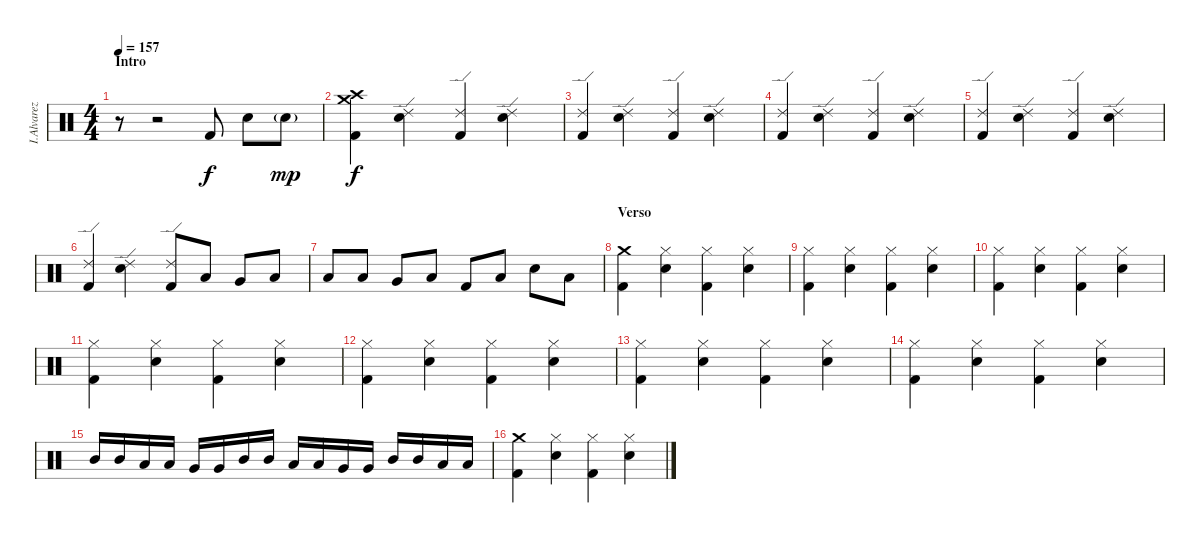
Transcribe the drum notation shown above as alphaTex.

\track ("I.Alvarez" "I.Alvarez") {instrument percussion}
\staff {score}
\articulation defaults
\ts (4 4)
\section ("" "Intro")
\tempo 157
\clef neutral
\ks c
r.8{dy f} r.2 "Kick (hit) 2".8 "Electric Snare (hit)".8 "Electric Snare (hit)"{g}.8{dy mp} |
("Crash medium (hit)" "Crash high (hit)" "Kick (hit) 2").4{dy f} ("Ride (edge) 2" "Electric Snare (hit)").4 ("Ride (edge) 2" "Kick (hit) 2").4 ("Ride (edge) 2" "Electric Snare (hit)").4 |
("Ride (edge) 2" "Kick (hit) 2").4 ("Ride (edge) 2" "Electric Snare (hit)").4 ("Ride (edge) 2" "Kick (hit) 2").4 ("Ride (edge) 2" "Electric Snare (hit)").4 |
("Ride (edge) 2" "Kick (hit) 2").4 ("Ride (edge) 2" "Electric Snare (hit)").4 ("Ride (edge) 2" "Kick (hit) 2").4 ("Ride (edge) 2" "Electric Snare (hit)").4 |
("Ride (edge) 2" "Kick (hit) 2").4 ("Ride (edge) 2" "Electric Snare (hit)").4 ("Ride (edge) 2" "Kick (hit) 2").4 ("Ride (edge) 2" "Electric Snare (hit)").4 |
("Ride (edge) 2" "Kick (hit) 2").4 ("Ride (edge) 2" "Electric Snare (hit)").4 ("Ride (edge) 2" "Kick (hit) 2").8 "Low Tom (hit)".8 "Very Low Tom (hit)".8 "Low Floor Tom (hit)".8 |
"Low Tom (hit)".8 "Low Tom (hit)".8 "Very Low Tom (hit)".8 "Low Floor Tom (hit)".8 "Kick (hit) 2".8 "Low Floor Tom (hit)".8 "Electric Snare (hit)".8 "Low Floor Tom (hit)".8 |
\section ("" "Verso")
("Crash medium (hit)" "Kick (hit) 2").4 ("Hi-Hat (closed)" "Electric Snare (hit)").4 ("Hi-Hat (closed)" "Kick (hit) 2").4 ("Hi-Hat (closed)" "Electric Snare (hit)").4 |
("Hi-Hat (closed)" "Kick (hit) 2").4 ("Hi-Hat (closed)" "Electric Snare (hit)").4 ("Hi-Hat (closed)" "Kick (hit) 2").4 ("Hi-Hat (closed)" "Electric Snare (hit)").4 |
("Hi-Hat (closed)" "Kick (hit) 2").4 ("Hi-Hat (closed)" "Electric Snare (hit)").4 ("Hi-Hat (closed)" "Kick (hit) 2").4 ("Hi-Hat (closed)" "Electric Snare (hit)").4 |
("Hi-Hat (closed)" "Kick (hit) 2").4 ("Hi-Hat (closed)" "Electric Snare (hit)").4 ("Hi-Hat (closed)" "Kick (hit) 2").4 ("Hi-Hat (closed)" "Electric Snare (hit)").4 |
("Hi-Hat (closed)" "Kick (hit) 2").4 ("Hi-Hat (closed)" "Electric Snare (hit)").4 ("Hi-Hat (closed)" "Kick (hit) 2").4 ("Hi-Hat (closed)" "Electric Snare (hit)").4 |
("Hi-Hat (closed)" "Kick (hit) 2").4 ("Hi-Hat (closed)" "Electric Snare (hit)").4 ("Hi-Hat (closed)" "Kick (hit) 2").4 ("Hi-Hat (closed)" "Electric Snare (hit)").4 |
("Hi-Hat (closed)" "Kick (hit) 2").4 ("Hi-Hat (closed)" "Electric Snare (hit)").4 ("Hi-Hat (closed)" "Kick (hit) 2").4 ("Hi-Hat (closed)" "Electric Snare (hit)").4 |
"Mid Tom (hit)".16 "Mid Tom (hit)".16 "Low Tom (hit)".16 "Low Tom (hit)".16 "Very Low Tom (hit)".16 "Very Low Tom (hit)".16 "Mid Tom (hit)".16 "Mid Tom (hit)".16 "Low Tom (hit)".16 "Low Tom (hit)".16 "Very Low Tom (hit)".16 "Very Low Tom (hit)".16 "Mid Tom (hit)".16 "Mid Tom (hit)".16 "Low Tom (hit)".16 "Low Tom (hit)".16 |
("Crash medium (hit)" "Kick (hit) 2").4 ("Hi-Hat (closed)" "Electric Snare (hit)").4 ("Hi-Hat (closed)" "Kick (hit) 2").4 ("Hi-Hat (closed)" "Electric Snare (hit)").4
